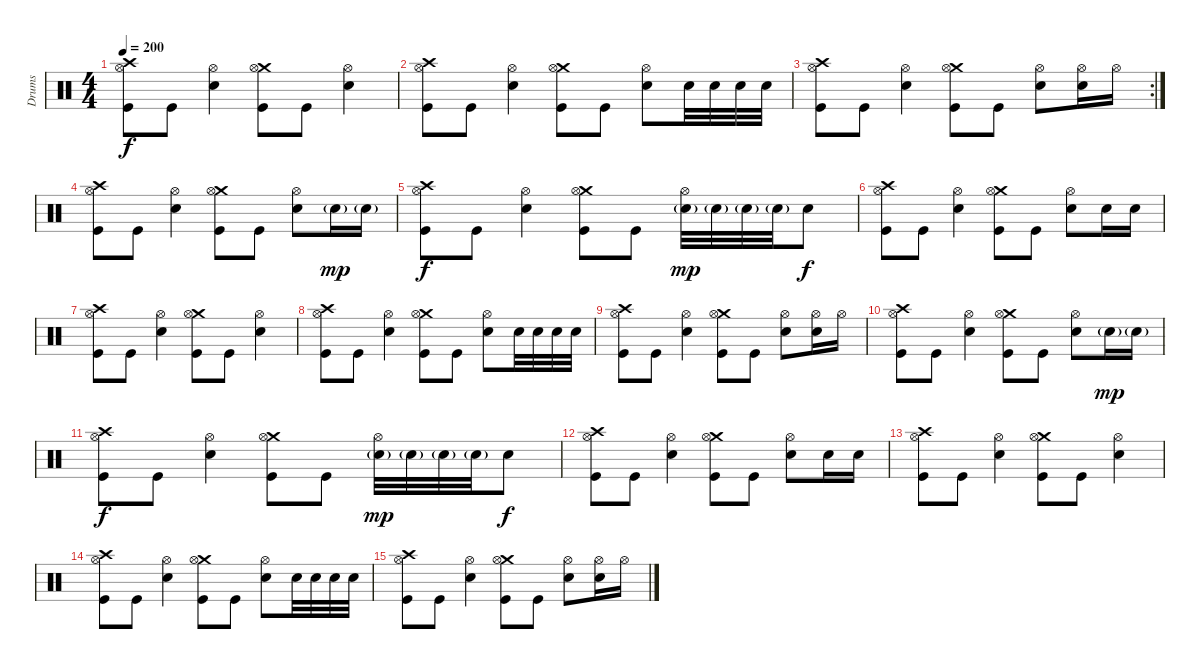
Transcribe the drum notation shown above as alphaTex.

\track ("Drums" "Drums") {instrument percussion}
\staff {score}
\articulation defaults
\ts (4 4)
\tempo 200
\clef neutral
\ks c
("Crash high (hit)" "Hi-Hat (open)" "Kick (hit)").8{dy f} "Kick (hit)".8 ("Hi-Hat (open)" "Snare (hit) 2").4 ("Crash medium (hit)" "Hi-Hat (open)" "Kick (hit)").8 "Kick (hit)".8 ("Hi-Hat (open)" "Snare (hit) 2").4 |
("Crash high (hit)" "Hi-Hat (open)" "Kick (hit)").8 "Kick (hit)".8 ("Hi-Hat (open)" "Snare (hit) 2").4 ("Crash medium (hit)" "Hi-Hat (open)" "Kick (hit)").8 "Kick (hit)".8 ("Hi-Hat (open)" "Snare (hit) 2").8 "Snare (hit) 2".32 "Snare (hit) 2".32 "Snare (hit) 2".32 "Snare (hit) 2".32 |
\rc 2
("Crash high (hit)" "Hi-Hat (open)" "Kick (hit)").8 "Kick (hit)".8 ("Hi-Hat (open)" "Snare (hit) 2").4 ("Crash medium (hit)" "Hi-Hat (open)" "Kick (hit)").8 "Kick (hit)".8 ("Hi-Hat (open)" "Snare (hit) 2").8 ("Hi-Hat (open)" "Snare (hit) 2").16 "Hi-Hat (open)".16 |
("Crash high (hit)" "Hi-Hat (open)" "Kick (hit)").8 "Kick (hit)".8 ("Hi-Hat (open)" "Snare (hit) 2").4 ("Crash medium (hit)" "Hi-Hat (open)" "Kick (hit)").8 "Kick (hit)".8 ("Hi-Hat (open)" "Snare (hit) 2").8 "Snare (hit) 2"{g}.16{dy mp} "Snare (hit) 2"{g}.16 |
("Crash high (hit)" "Hi-Hat (open)" "Kick (hit)").8{dy f} "Kick (hit)".8 ("Hi-Hat (open)" "Snare (hit) 2").4 ("Crash medium (hit)" "Hi-Hat (open)" "Kick (hit)").8 "Kick (hit)".8 ("Hi-Hat (open)" "Snare (hit) 2"{g}).32{dy mp} "Snare (hit) 2"{g}.32 "Snare (hit) 2"{g}.32 "Snare (hit) 2"{g}.32 "Snare (hit) 2".8{dy f} |
("Crash high (hit)" "Hi-Hat (open)" "Kick (hit)").8 "Kick (hit)".8 ("Hi-Hat (open)" "Snare (hit) 2").4 ("Crash medium (hit)" "Hi-Hat (open)" "Kick (hit)").8 "Kick (hit)".8 ("Hi-Hat (open)" "Snare (hit) 2").8 "Snare (hit) 2".16 "Snare (hit) 2".16 |
("Crash high (hit)" "Hi-Hat (open)" "Kick (hit)").8 "Kick (hit)".8 ("Hi-Hat (open)" "Snare (hit) 2").4 ("Crash medium (hit)" "Hi-Hat (open)" "Kick (hit)").8 "Kick (hit)".8 ("Hi-Hat (open)" "Snare (hit) 2").4 |
("Crash high (hit)" "Hi-Hat (open)" "Kick (hit)").8 "Kick (hit)".8 ("Hi-Hat (open)" "Snare (hit) 2").4 ("Crash medium (hit)" "Hi-Hat (open)" "Kick (hit)").8 "Kick (hit)".8 ("Hi-Hat (open)" "Snare (hit) 2").8 "Snare (hit) 2".32 "Snare (hit) 2".32 "Snare (hit) 2".32 "Snare (hit) 2".32 |
("Crash high (hit)" "Hi-Hat (open)" "Kick (hit)").8 "Kick (hit)".8 ("Hi-Hat (open)" "Snare (hit) 2").4 ("Crash medium (hit)" "Hi-Hat (open)" "Kick (hit)").8 "Kick (hit)".8 ("Hi-Hat (open)" "Snare (hit) 2").8 ("Hi-Hat (open)" "Snare (hit) 2").16 "Hi-Hat (open)".16 |
("Crash high (hit)" "Hi-Hat (open)" "Kick (hit)").8 "Kick (hit)".8 ("Hi-Hat (open)" "Snare (hit) 2").4 ("Crash medium (hit)" "Hi-Hat (open)" "Kick (hit)").8 "Kick (hit)".8 ("Hi-Hat (open)" "Snare (hit) 2").8 "Snare (hit) 2"{g}.16{dy mp} "Snare (hit) 2"{g}.16 |
("Crash high (hit)" "Hi-Hat (open)" "Kick (hit)").8{dy f} "Kick (hit)".8 ("Hi-Hat (open)" "Snare (hit) 2").4 ("Crash medium (hit)" "Hi-Hat (open)" "Kick (hit)").8 "Kick (hit)".8 ("Hi-Hat (open)" "Snare (hit) 2"{g}).32{dy mp} "Snare (hit) 2"{g}.32 "Snare (hit) 2"{g}.32 "Snare (hit) 2"{g}.32 "Snare (hit) 2".8{dy f} |
("Crash high (hit)" "Hi-Hat (open)" "Kick (hit)").8 "Kick (hit)".8 ("Hi-Hat (open)" "Snare (hit) 2").4 ("Crash medium (hit)" "Hi-Hat (open)" "Kick (hit)").8 "Kick (hit)".8 ("Hi-Hat (open)" "Snare (hit) 2").8 "Snare (hit) 2".16 "Snare (hit) 2".16 |
("Crash high (hit)" "Hi-Hat (open)" "Kick (hit)").8 "Kick (hit)".8 ("Hi-Hat (open)" "Snare (hit) 2").4 ("Crash medium (hit)" "Hi-Hat (open)" "Kick (hit)").8 "Kick (hit)".8 ("Hi-Hat (open)" "Snare (hit) 2").4 |
("Crash high (hit)" "Hi-Hat (open)" "Kick (hit)").8 "Kick (hit)".8 ("Hi-Hat (open)" "Snare (hit) 2").4 ("Crash medium (hit)" "Hi-Hat (open)" "Kick (hit)").8 "Kick (hit)".8 ("Hi-Hat (open)" "Snare (hit) 2").8 "Snare (hit) 2".32 "Snare (hit) 2".32 "Snare (hit) 2".32 "Snare (hit) 2".32 |
("Crash high (hit)" "Hi-Hat (open)" "Kick (hit)").8 "Kick (hit)".8 ("Hi-Hat (open)" "Snare (hit) 2").4 ("Crash medium (hit)" "Hi-Hat (open)" "Kick (hit)").8 "Kick (hit)".8 ("Hi-Hat (open)" "Snare (hit) 2").8 ("Hi-Hat (open)" "Snare (hit) 2").16 "Hi-Hat (open)".16
